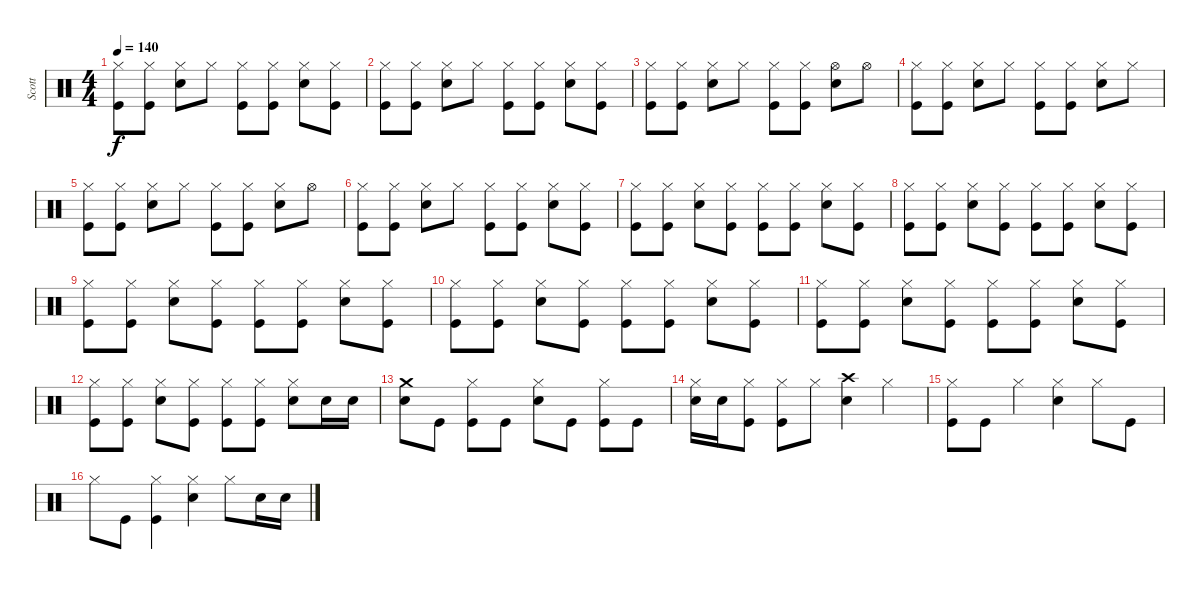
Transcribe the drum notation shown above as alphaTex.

\track ("Scott" "Scott") {instrument percussion}
\staff {score}
\articulation defaults
\ts (4 4)
\tempo 140
\clef neutral
\ks c
("Kick (hit)" "Hi-Hat (closed)").8{dy f} ("Kick (hit)" "Hi-Hat (closed)").8 ("Snare (hit) 2" "Hi-Hat (closed)").8 "Hi-Hat (closed)".8 ("Kick (hit)" "Hi-Hat (closed)").8 ("Kick (hit)" "Hi-Hat (closed)").8 ("Snare (hit) 2" "Hi-Hat (closed)").8 ("Kick (hit)" "Hi-Hat (closed)").8 |
("Kick (hit)" "Hi-Hat (closed)").8 ("Kick (hit)" "Hi-Hat (closed)").8 ("Snare (hit) 2" "Hi-Hat (closed)").8 "Hi-Hat (closed)".8 ("Kick (hit)" "Hi-Hat (closed)").8 ("Kick (hit)" "Hi-Hat (closed)").8 ("Snare (hit) 2" "Hi-Hat (closed)").8 ("Kick (hit)" "Hi-Hat (closed)").8 |
("Kick (hit)" "Hi-Hat (closed)").8 ("Kick (hit)" "Hi-Hat (closed)").8 ("Snare (hit) 2" "Hi-Hat (closed)").8 "Hi-Hat (closed)".8 ("Kick (hit)" "Hi-Hat (closed)").8 ("Kick (hit)" "Hi-Hat (closed)").8 ("Snare (hit) 2" "Hi-Hat (open)").8 "Hi-Hat (open)".8 |
("Kick (hit)" "Hi-Hat (closed)").8 ("Kick (hit)" "Hi-Hat (closed)").8 ("Snare (hit) 2" "Hi-Hat (closed)").8 "Hi-Hat (closed)".8 ("Kick (hit)" "Hi-Hat (closed)").8 ("Kick (hit)" "Hi-Hat (closed)").8 ("Snare (hit) 2" "Hi-Hat (closed)").8 "Hi-Hat (closed)".8 |
("Kick (hit)" "Hi-Hat (closed)").8 ("Kick (hit)" "Hi-Hat (closed)").8 ("Snare (hit) 2" "Hi-Hat (closed)").8 "Hi-Hat (closed)".8 ("Kick (hit)" "Hi-Hat (closed)").8 ("Kick (hit)" "Hi-Hat (closed)").8 ("Snare (hit) 2" "Hi-Hat (closed)").8 "Hi-Hat (open)".8 |
("Kick (hit)" "Hi-Hat (closed)").8 ("Kick (hit)" "Hi-Hat (closed)").8 ("Snare (hit) 2" "Hi-Hat (closed)").8 "Hi-Hat (closed)".8 ("Kick (hit)" "Hi-Hat (closed)").8 ("Kick (hit)" "Hi-Hat (closed)").8 ("Snare (hit) 2" "Hi-Hat (closed)").8 ("Kick (hit)" "Hi-Hat (closed)").8 |
("Kick (hit)" "Hi-Hat (closed)").8 ("Kick (hit)" "Hi-Hat (closed)").8 ("Snare (hit) 2" "Hi-Hat (closed)").8 ("Kick (hit)" "Hi-Hat (closed)").8 ("Kick (hit)" "Hi-Hat (closed)").8 ("Kick (hit)" "Hi-Hat (closed)").8 ("Snare (hit) 2" "Hi-Hat (closed)").8 ("Kick (hit)" "Hi-Hat (closed)").8 |
("Kick (hit)" "Hi-Hat (closed)").8 ("Kick (hit)" "Hi-Hat (closed)").8 ("Snare (hit) 2" "Hi-Hat (closed)").8 ("Kick (hit)" "Hi-Hat (closed)").8 ("Kick (hit)" "Hi-Hat (closed)").8 ("Kick (hit)" "Hi-Hat (closed)").8 ("Snare (hit) 2" "Hi-Hat (closed)").8 ("Kick (hit)" "Hi-Hat (closed)").8 |
("Kick (hit)" "Hi-Hat (closed)").8 ("Kick (hit)" "Hi-Hat (closed)").8 ("Snare (hit) 2" "Hi-Hat (closed)").8 ("Kick (hit)" "Hi-Hat (closed)").8 ("Kick (hit)" "Hi-Hat (closed)").8 ("Kick (hit)" "Hi-Hat (closed)").8 ("Snare (hit) 2" "Hi-Hat (closed)").8 ("Kick (hit)" "Hi-Hat (closed)").8 |
("Kick (hit)" "Hi-Hat (closed)").8 ("Kick (hit)" "Hi-Hat (closed)").8 ("Snare (hit) 2" "Hi-Hat (closed)").8 ("Kick (hit)" "Hi-Hat (closed)").8 ("Kick (hit)" "Hi-Hat (closed)").8 ("Kick (hit)" "Hi-Hat (closed)").8 ("Snare (hit) 2" "Hi-Hat (closed)").8 ("Kick (hit)" "Hi-Hat (closed)").8 |
("Kick (hit)" "Hi-Hat (closed)").8 ("Kick (hit)" "Hi-Hat (closed)").8 ("Snare (hit) 2" "Hi-Hat (closed)").8 ("Kick (hit)" "Hi-Hat (closed)").8 ("Kick (hit)" "Hi-Hat (closed)").8 ("Kick (hit)" "Hi-Hat (closed)").8 ("Snare (hit) 2" "Hi-Hat (closed)").8 ("Kick (hit)" "Hi-Hat (closed)").8 |
("Kick (hit)" "Hi-Hat (closed)").8 ("Kick (hit)" "Hi-Hat (closed)").8 ("Snare (hit) 2" "Hi-Hat (closed)").8 ("Kick (hit)" "Hi-Hat (closed)").8 ("Kick (hit)" "Hi-Hat (closed)").8 ("Kick (hit)" "Hi-Hat (closed)").8 ("Snare (hit) 2" "Hi-Hat (closed)").8 "Snare (hit) 2".16 "Snare (hit) 2".16 |
("Snare (hit) 2" "Crash medium (hit)").8 "Kick (hit)".8 ("Kick (hit)" "Hi-Hat (closed)").8 "Kick (hit)".8 ("Snare (hit) 2" "Hi-Hat (closed)").8 "Kick (hit)".8 ("Kick (hit)" "Hi-Hat (closed)").8 "Kick (hit)".8 |
("Snare (hit) 2" "Hi-Hat (closed)").16 "Snare (hit) 2".16 ("Kick (hit)" "Hi-Hat (closed)").8 ("Kick (hit)" "Hi-Hat (closed)").8 "Hi-Hat (closed)".8 ("Snare (hit) 2" "Crash high (hit)").4 "Hi-Hat (closed)".4 |
("Kick (hit)" "Hi-Hat (closed)").8 "Kick (hit)".8 "Hi-Hat (closed)".4 ("Snare (hit) 2" "Hi-Hat (closed)").4 "Hi-Hat (closed)".8 "Kick (hit)".8 |
"Hi-Hat (closed)".8 "Kick (hit)".8 ("Kick (hit)" "Hi-Hat (closed)").4 ("Snare (hit) 2" "Hi-Hat (closed)").4 "Hi-Hat (closed)".8 "Snare (hit) 2".16 "Snare (hit) 2".16
